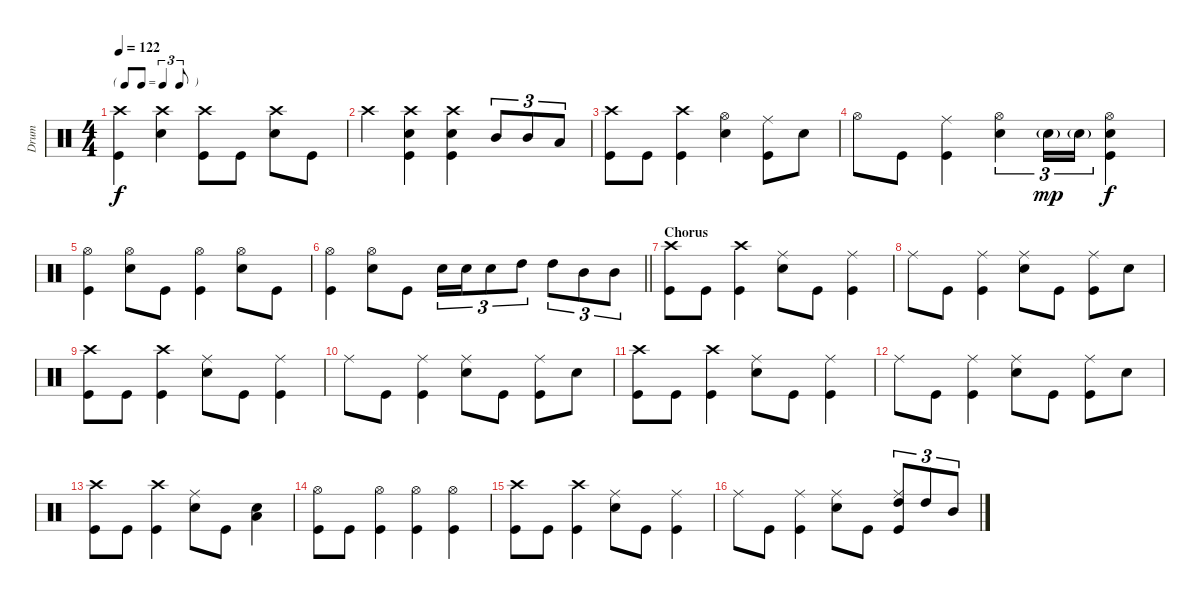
\track ("Drum" "Drum") {instrument percussion}
\staff {score}
\articulation defaults
\ts (4 4)
\tf triplet8th
\tempo 122
\clef neutral
\ks c
("Crash high (hit)" "Kick (hit)").4{dy f} ("Crash high (hit)" "Electric Snare (hit)").4 ("Crash high (hit)" "Kick (hit)").8 "Kick (hit)".8 ("Crash high (hit)" "Electric Snare (hit)").8 "Kick (hit)".8 |
"Crash high (hit)".4 ("Crash high (hit)" "Electric Snare (hit)" "Kick (hit)").4 ("Crash high (hit)" "Electric Snare (hit)" "Kick (hit)").4 "Mid Tom (hit)".8{tu (3 2)} "Mid Tom (hit)".8{tu (3 2)} "Low Tom (hit)".8{tu (3 2)} |
("Crash high (hit)" "Kick (hit)").8 "Kick (hit)".8 ("Crash high (hit)" "Kick (hit)").4 ("Hi-Hat (open)" "Electric Snare (hit)").4 ("Ride (middle)" "Kick (hit)").8 "Electric Snare (hit)".8 |
"Hi-Hat (open)".8 "Kick (hit)".8 ("Ride (middle)" "Kick (hit)").4 ("Hi-Hat (open)" "Electric Snare (hit)").4{tu (3 2)} "Electric Snare (hit)"{g}.16{tu (3 2) dy mp} "Electric Snare (hit)"{g}.16{tu (3 2)} ("Hi-Hat (open)" "Electric Snare (hit)" "Kick (hit)").4{dy f} |
("Hi-Hat (open)" "Kick (hit)").4 ("Hi-Hat (open)" "Electric Snare (hit)").8 "Kick (hit)".8 ("Hi-Hat (open)" "Kick (hit)").4 ("Hi-Hat (open)" "Electric Snare (hit)").8 "Kick (hit)".8 |
\barLineRight lightlight
("Hi-Hat (open)" "Kick (hit)").4 ("Hi-Hat (open)" "Electric Snare (hit)").8 "Kick (hit)".8 "Electric Snare (hit)".16{tu (3 2)} "Electric Snare (hit)".16{tu (3 2)} "Electric Snare (hit)".8{tu (3 2)} "High Tom (hit)".8{tu (3 2)} "High Tom (hit)".8{tu (3 2)} "Mid Tom (hit)".8{tu (3 2)} "Mid Tom (hit)".8{tu (3 2)} |
\section ("" "Chorus")
("Crash high (hit)" "Kick (hit)").8 "Kick (hit)".8 ("Crash high (hit)" "Kick (hit)").4 ("Ride (middle)" "Electric Snare (hit)").8 "Kick (hit)".8 ("Ride (middle)" "Kick (hit)").4 |
"Ride (middle)".8 "Kick (hit)".8 ("Ride (middle)" "Kick (hit)").4 ("Ride (middle)" "Electric Snare (hit)").8 "Kick (hit)".8 ("Ride (middle)" "Kick (hit)").8 "Electric Snare (hit)".8 |
("Crash high (hit)" "Kick (hit)").8 "Kick (hit)".8 ("Crash high (hit)" "Kick (hit)").4 ("Ride (middle)" "Electric Snare (hit)").8 "Kick (hit)".8 ("Ride (middle)" "Kick (hit)").4 |
"Ride (middle)".8 "Kick (hit)".8 ("Ride (middle)" "Kick (hit)").4 ("Ride (middle)" "Electric Snare (hit)").8 "Kick (hit)".8 ("Ride (middle)" "Kick (hit)").8 "Electric Snare (hit)".8 |
("Crash high (hit)" "Kick (hit)").8 "Kick (hit)".8 ("Crash high (hit)" "Kick (hit)").4 ("Ride (middle)" "Electric Snare (hit)").8 "Kick (hit)".8 ("Ride (middle)" "Kick (hit)").4 |
"Ride (middle)".8 "Kick (hit)".8 ("Ride (middle)" "Kick (hit)").4 ("Ride (middle)" "Electric Snare (hit)").8 "Kick (hit)".8 ("Ride (middle)" "Kick (hit)").8 "Electric Snare (hit)".8 |
("Crash high (hit)" "Kick (hit)").8 "Kick (hit)".8 ("Crash high (hit)" "Kick (hit)").4 ("Ride (middle)" "Electric Snare (hit)").8 "Kick (hit)".8 ("Electric Snare (hit)" "Low Tom (hit)").4 |
("Hi-Hat (open)" "Kick (hit)").8 "Kick (hit)".8 ("Hi-Hat (open)" "Kick (hit)").4 ("Hi-Hat (open)" "Kick (hit)").4 ("Hi-Hat (open)" "Kick (hit)").4 |
("Crash high (hit)" "Kick (hit)").8 "Kick (hit)".8 ("Crash high (hit)" "Kick (hit)").4 ("Ride (middle)" "Electric Snare (hit)").8 "Kick (hit)".8 ("Ride (middle)" "Kick (hit)").4 |
"Ride (middle)".8 "Kick (hit)".8 ("Ride (middle)" "Kick (hit)").4 ("Ride (middle)" "Electric Snare (hit)").8 "Kick (hit)".8 ("Ride (middle)" "High Tom (hit)" "Kick (hit)").8{tu (3 2)} "High Tom (hit)".8{tu (3 2)} "Mid Tom (hit)".8{tu (3 2)}
